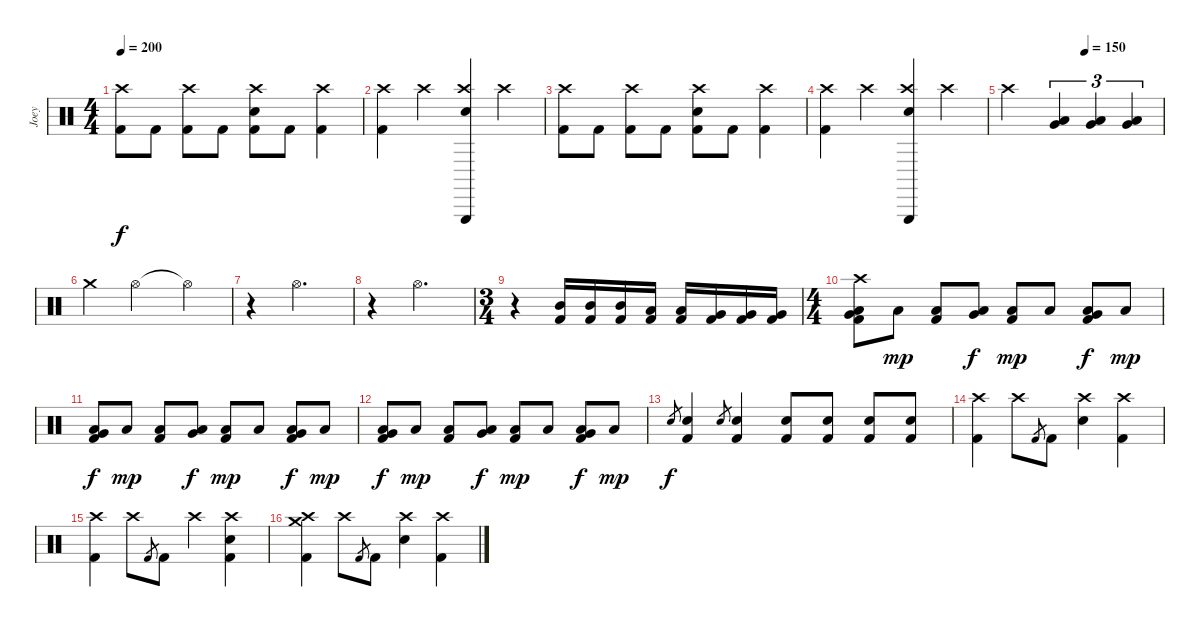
\track ("Joey" "Joey") {instrument percussion}
\staff {score}
\articulation defaults
\ts (4 4)
\tempo 200
\clef neutral
\ks c
("Crash high (hit)" "Kick (hit) 2").8{dy f} "Kick (hit) 2".8 ("Crash high (hit)" "Kick (hit) 2").8 "Kick (hit) 2".8 ("Crash high (hit)" "Electric Snare (hit)" "Kick (hit) 2").8 "Kick (hit) 2".8 ("Crash high (hit)" "Kick (hit) 2").4 |
("Crash high (hit)" "Kick (hit) 2").4 "Crash high (hit)".4 ("Crash high (hit)" "Triangle (hit)" "Electric Snare (hit)").4 "Crash high (hit)".4 |
("Crash high (hit)" "Kick (hit) 2").8 "Kick (hit) 2".8 ("Crash high (hit)" "Kick (hit) 2").8 "Kick (hit) 2".8 ("Crash high (hit)" "Electric Snare (hit)" "Kick (hit) 2").8 "Kick (hit) 2".8 ("Crash high (hit)" "Kick (hit) 2").4 |
("Crash high (hit)" "Kick (hit) 2").4 "Crash high (hit)".4 ("Crash high (hit)" "Triangle (hit)" "Electric Snare (hit)").4 "Crash high (hit)".4 |
\tempo (150 0.5)
"Crash high (hit)".2 ("Very Low Tom (hit)" "Low Tom (hit)").4{tu (3 2)} ("Very Low Tom (hit)" "Low Tom (hit)").4{tu (3 2)} ("Very Low Tom (hit)" "Low Tom (hit)").4{tu (3 2)} |
"Crash medium (hit)".4 "Hi-Hat (open)".2 "Hi-Hat (open)"{t}.4 |
r.4 "Hi-Hat (open)".2{d} |
r.4 "Hi-Hat (open)".2{d} |
\ts (3 4)
r.4 ("Mid Tom (hit)" "Kick (hit) 2").16 ("Mid Tom (hit)" "Kick (hit) 2").16 ("Mid Tom (hit)" "Kick (hit) 2").16 ("Low Tom (hit)" "Kick (hit) 2").16 ("Low Tom (hit)" "Kick (hit) 2").16 ("Very Low Tom (hit)" "Kick (hit) 2").16 ("Very Low Tom (hit)" "Kick (hit) 2").16 ("Very Low Tom (hit)" "Kick (hit) 2").16 |
\ts (4 4)
("Crash high (hit)" "Very Low Tom (hit)" "Low Floor Tom (hit)" "Kick (hit) 2").8 "Low Floor Tom (hit)".8{dy mp} ("Low Floor Tom (hit)" "Kick (hit) 2").8 ("Very Low Tom (hit)" "Low Floor Tom (hit)").8{dy f} ("Low Floor Tom (hit)" "Kick (hit) 2").8{dy mp} "Low Floor Tom (hit)".8 ("Very Low Tom (hit)" "Low Floor Tom (hit)" "Kick (hit) 2").8{dy f} "Low Floor Tom (hit)".8{dy mp} |
("Very Low Tom (hit)" "Low Floor Tom (hit)" "Kick (hit) 2").8{dy f} "Low Floor Tom (hit)".8{dy mp} ("Low Floor Tom (hit)" "Kick (hit) 2").8 ("Very Low Tom (hit)" "Low Floor Tom (hit)").8{dy f} ("Low Floor Tom (hit)" "Kick (hit) 2").8{dy mp} "Low Floor Tom (hit)".8 ("Very Low Tom (hit)" "Low Floor Tom (hit)" "Kick (hit) 2").8{dy f} "Low Floor Tom (hit)".8{dy mp} |
("Very Low Tom (hit)" "Low Floor Tom (hit)" "Kick (hit) 2").8{dy f} "Low Floor Tom (hit)".8{dy mp} ("Low Floor Tom (hit)" "Kick (hit) 2").8 ("Very Low Tom (hit)" "Low Floor Tom (hit)").8{dy f} ("Low Floor Tom (hit)" "Kick (hit) 2").8{dy mp} "Low Floor Tom (hit)".8 ("Very Low Tom (hit)" "Low Floor Tom (hit)" "Kick (hit) 2").8{dy f} "Low Floor Tom (hit)".8{dy mp} |
"Electric Snare (hit)".8{gr dy f} ("Electric Snare (hit)" "Kick (hit) 2").4 "Electric Snare (hit)".8{gr} ("Electric Snare (hit)" "Kick (hit) 2").4 ("Electric Snare (hit)" "Kick (hit) 2").8 ("Electric Snare (hit)" "Kick (hit) 2").8 ("Electric Snare (hit)" "Kick (hit) 2").8 ("Electric Snare (hit)" "Kick (hit) 2").8 |
("Crash high (hit)" "Kick (hit) 2").4 "Crash high (hit)".8 "Kick (hit) 2".8{gr} "Kick (hit) 2".8 ("Crash high (hit)" "Electric Snare (hit)").4 ("Crash high (hit)" "Kick (hit) 2").4 |
("Crash high (hit)" "Kick (hit) 2").4 "Crash high (hit)".8 "Kick (hit) 2".8{gr} "Kick (hit) 2".8 "Crash high (hit)".4 ("Crash high (hit)" "Electric Snare (hit)" "Kick (hit) 2").4 |
("Crash high (hit)" "Crash medium (hit)" "Kick (hit) 2").4 "Crash high (hit)".8 "Kick (hit) 2".8{gr} "Kick (hit) 2".8 ("Crash high (hit)" "Electric Snare (hit)").4 ("Crash high (hit)" "Kick (hit) 2").4
